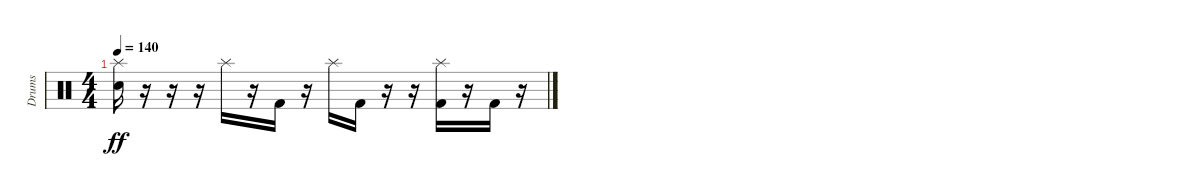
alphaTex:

\track ("Drums" "Drums") {instrument percussion}
\staff {score}
\articulation defaults
\ts (4 4)
\tempo 140
\clef neutral
\ks c
("Splash (hit)" "Electric Snare (hit)").16{dy ff} r.16 r.16 r.16 "Splash (hit)".16 r.16 "Kick (hit) 2".16 r.16 "Splash (hit)".16 "Kick (hit) 2".16 r.16 r.16 ("Splash (hit)" "Kick (hit) 2").16 r.16 "Kick (hit) 2".16 r.16
